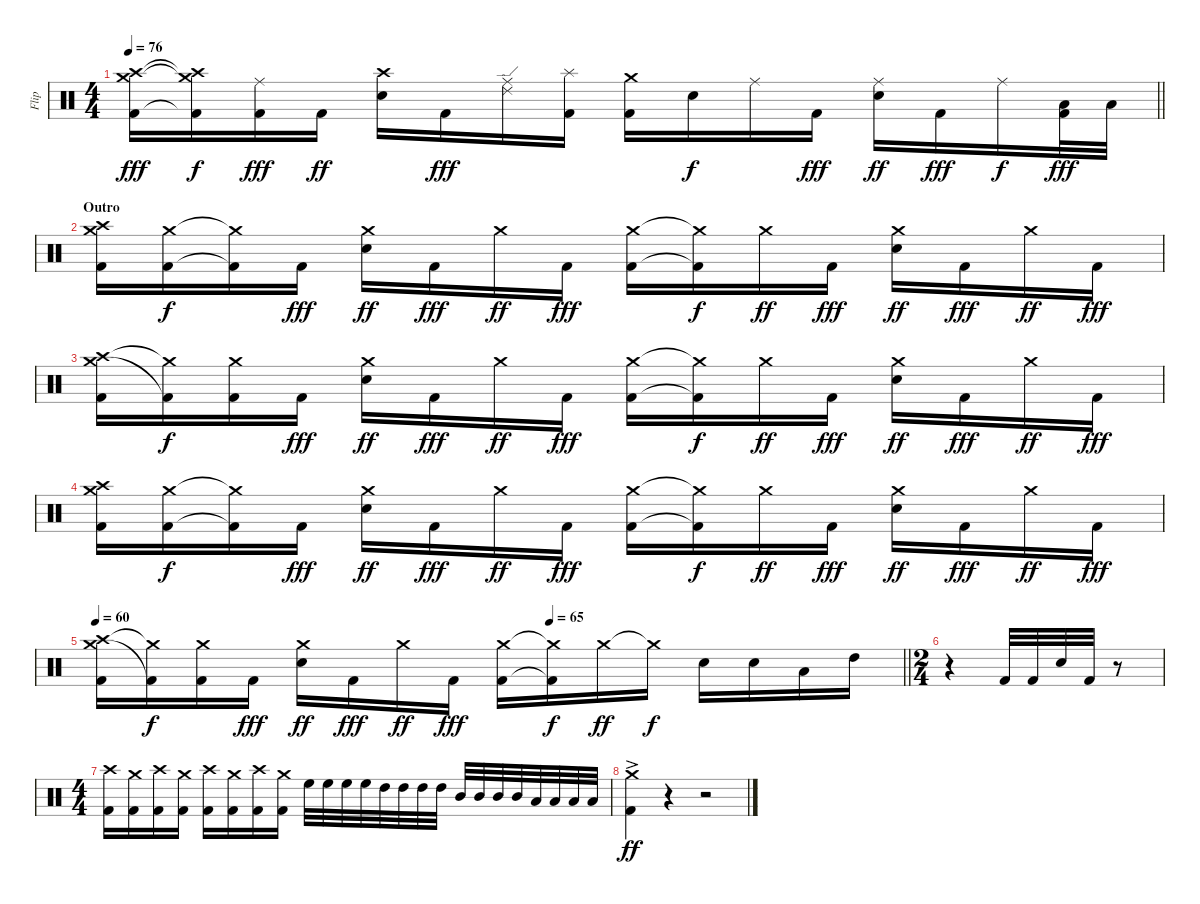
\track ("Flip" "Flip") {instrument percussion}
\staff {score}
\articulation defaults
\ts (4 4)
\tempo 76
\clef neutral
\barLineRight lightlight
\ks c
("Crash medium (hit)" "Crash high (hit)" "Kick (hit) 2").16{dy fff} ("Crash medium (hit)"{t} "Crash high (hit)"{t} "Kick (hit) 2"{t}).16{dy f} ("Ride (middle)" "Kick (hit) 2").16{dy fff} "Kick (hit) 2".16{dy ff} ("Crash high (hit)" "Snare (hit) 2").16 "Kick (hit) 2".16{dy fff} ("Ride (middle)" "Ride (edge) 2").16 ("Splash (hit)" "Kick (hit) 2").16 ("Crash medium (hit)" "Kick (hit) 2").16 "Snare (hit) 2".16{dy f} "Ride (middle)".16 "Kick (hit) 2".16{dy fff} ("Ride (middle)" "Snare (hit) 2").16{dy ff} "Kick (hit) 2".16{dy fff} "Ride (middle)".16{dy f} ("Low Tom (hit)" "Kick (hit) 2").32{dy fff} "Low Tom (hit)".32 |
\section ("" "Outro")
("Crash high (hit)" "Crash medium (hit)" "Kick (hit) 2").16 ("Crash medium (hit)" "Kick (hit) 2").16{dy f} ("Crash medium (hit)"{t} "Kick (hit) 2"{t}).16 "Kick (hit) 2".16{dy fff} ("Crash medium (hit)" "Snare (hit) 2").16{dy ff} "Kick (hit) 2".16{dy fff} "Crash medium (hit)".16{dy ff} "Kick (hit) 2".16{dy fff} ("Crash medium (hit)" "Kick (hit) 2").16 ("Crash medium (hit)"{t} "Kick (hit) 2"{t}).16{dy f} "Crash medium (hit)".16{dy ff} "Kick (hit) 2".16{dy fff} ("Crash medium (hit)" "Snare (hit) 2").16{dy ff} "Kick (hit) 2".16{dy fff} "Crash medium (hit)".16{dy ff} "Kick (hit) 2".16{dy fff} |
("Crash high (hit)" "Crash medium (hit)" "Kick (hit) 2").16 ("Crash medium (hit)"{t} "Kick (hit) 2"{t}).16{dy f} ("Crash medium (hit)" "Kick (hit) 2").16 "Kick (hit) 2".16{dy fff} ("Crash medium (hit)" "Snare (hit) 2").16{dy ff} "Kick (hit) 2".16{dy fff} "Crash medium (hit)".16{dy ff} "Kick (hit) 2".16{dy fff} ("Crash medium (hit)" "Kick (hit) 2").16 ("Crash medium (hit)"{t} "Kick (hit) 2"{t}).16{dy f} "Crash medium (hit)".16{dy ff} "Kick (hit) 2".16{dy fff} ("Crash medium (hit)" "Snare (hit) 2").16{dy ff} "Kick (hit) 2".16{dy fff} "Crash medium (hit)".16{dy ff} "Kick (hit) 2".16{dy fff} |
("Crash high (hit)" "Crash medium (hit)" "Kick (hit) 2").16 ("Crash medium (hit)" "Kick (hit) 2").16{dy f} ("Crash medium (hit)"{t} "Kick (hit) 2"{t}).16 "Kick (hit) 2".16{dy fff} ("Crash medium (hit)" "Snare (hit) 2").16{dy ff} "Kick (hit) 2".16{dy fff} "Crash medium (hit)".16{dy ff} "Kick (hit) 2".16{dy fff} ("Crash medium (hit)" "Kick (hit) 2").16 ("Crash medium (hit)"{t} "Kick (hit) 2"{t}).16{dy f} "Crash medium (hit)".16{dy ff} "Kick (hit) 2".16{dy fff} ("Crash medium (hit)" "Snare (hit) 2").16{dy ff} "Kick (hit) 2".16{dy fff} "Crash medium (hit)".16{dy ff} "Kick (hit) 2".16{dy fff} |
\tempo 60
\tempo (65 0.5625)
\barLineRight lightlight
("Crash high (hit)" "Crash medium (hit)" "Kick (hit) 2").16 ("Crash medium (hit)"{t} "Kick (hit) 2"{t}).16{dy f} ("Crash medium (hit)" "Kick (hit) 2").16 "Kick (hit) 2".16{dy fff} ("Crash medium (hit)" "Snare (hit) 2").16{dy ff} "Kick (hit) 2".16{dy fff} "Crash medium (hit)".16{dy ff} "Kick (hit) 2".16{dy fff} ("Crash medium (hit)" "Kick (hit) 2").16 ("Crash medium (hit)"{t} "Kick (hit) 2"{t}).16{dy f} "Crash medium (hit)".16{dy ff} "Crash medium (hit)"{t}.16{dy f} "Snare (hit) 2".16 "Snare (hit) 2".16 "Low Tom (hit)".16 "High Tom (hit)".16 |
\ts (2 4)
r.4 "Kick (hit) 2".32 "Kick (hit) 2".32 "Snare (hit) 2".32 "Kick (hit) 2".32 r.8 |
\ts (4 4)
("Crash high (hit)" "Kick (hit) 2").16 ("Crash medium (hit)" "Kick (hit) 2").16 ("Crash high (hit)" "Kick (hit) 2").16 ("Crash medium (hit)" "Kick (hit) 2").16 ("Crash high (hit)" "Kick (hit) 2").16 ("Crash medium (hit)" "Kick (hit) 2").16 ("Crash high (hit)" "Kick (hit) 2").16 ("Crash medium (hit)" "Kick (hit) 2").16 "High Floor Tom (hit)".32 "High Floor Tom (hit)".32 "High Floor Tom (hit)".32 "High Floor Tom (hit)".32 "High Tom (hit)".32 "High Tom (hit)".32 "High Tom (hit)".32 "High Tom (hit)".32 "Mid Tom (hit)".32 "Mid Tom (hit)".32 "Mid Tom (hit)".32 "Mid Tom (hit)".32 "Low Tom (hit)".32 "Low Tom (hit)".32 "Low Tom (hit)".32 "Low Tom (hit)".32 |
("Crash medium (hit)" "Kick (hit) 2"{ac}).4{dy ff} r.4 r.2
